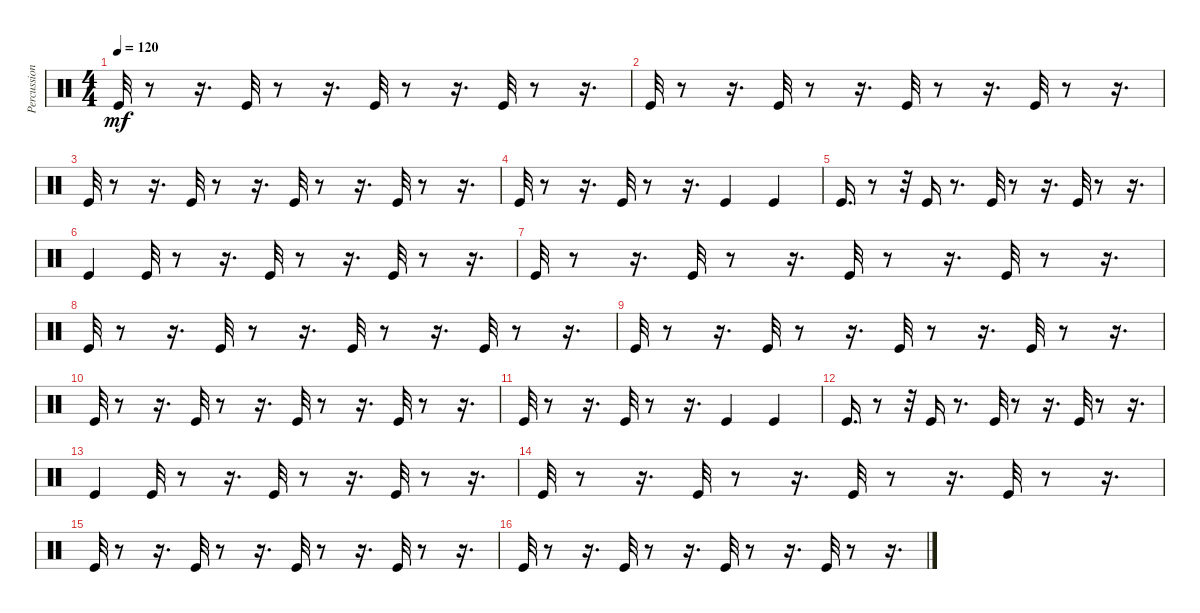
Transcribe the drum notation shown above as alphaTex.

\track ("Percussion" "Percussion") {instrument percussion}
\staff {score}
\articulation defaults
\ts (4 4)
\tempo 120
\clef neutral
\ks c "Kick (hit)".32{dy mf}
r.8 r.16{d} "Kick (hit)".32 r.8 r.16{d} "Kick (hit)".32 r.8 r.16{d} "Kick (hit)".32 r.8 r.16{d} |
"Kick (hit)".32 r.8 r.16{d} "Kick (hit)".32 r.8 r.16{d} "Kick (hit)".32 r.8 r.16{d} "Kick (hit)".32 r.8 r.16{d} |
"Kick (hit)".32 r.8 r.16{d} "Kick (hit)".32 r.8 r.16{d} "Kick (hit)".32 r.8 r.16{d} "Kick (hit)".32 r.8 r.16{d} |
"Kick (hit)".32 r.8 r.16{d} "Kick (hit)".32 r.8 r.16{d} "Kick (hit)".4 "Kick (hit)".4 |
"Kick (hit)".16{d} r.8 r.32 "Kick (hit)".16 r.8{d} "Kick (hit)".32 r.8 r.16{d} "Kick (hit)".32 r.8 r.16{d} |
"Kick (hit)".4 "Kick (hit)".32 r.8 r.16{d} "Kick (hit)".32 r.8 r.16{d} "Kick (hit)".32 r.8 r.16{d} |
"Kick (hit)".32 r.8 r.16{d} "Kick (hit)".32 r.8 r.16{d} "Kick (hit)".32 r.8 r.16{d} "Kick (hit)".32 r.8 r.16{d} |
"Kick (hit)".32 r.8 r.16{d} "Kick (hit)".32 r.8 r.16{d} "Kick (hit)".32 r.8 r.16{d} "Kick (hit)".32 r.8 r.16{d} |
"Kick (hit)".32 r.8 r.16{d} "Kick (hit)".32 r.8 r.16{d} "Kick (hit)".32 r.8 r.16{d} "Kick (hit)".32 r.8 r.16{d} |
"Kick (hit)".32 r.8 r.16{d} "Kick (hit)".32 r.8 r.16{d} "Kick (hit)".32 r.8 r.16{d} "Kick (hit)".32 r.8 r.16{d} |
"Kick (hit)".32 r.8 r.16{d} "Kick (hit)".32 r.8 r.16{d} "Kick (hit)".4 "Kick (hit)".4 |
"Kick (hit)".16{d} r.8 r.32 "Kick (hit)".16 r.8{d} "Kick (hit)".32 r.8 r.16{d} "Kick (hit)".32 r.8 r.16{d} |
"Kick (hit)".4 "Kick (hit)".32 r.8 r.16{d} "Kick (hit)".32 r.8 r.16{d} "Kick (hit)".32 r.8 r.16{d} |
"Kick (hit)".32 r.8 r.16{d} "Kick (hit)".32 r.8 r.16{d} "Kick (hit)".32 r.8 r.16{d} "Kick (hit)".32 r.8 r.16{d} |
"Kick (hit)".32 r.8 r.16{d} "Kick (hit)".32 r.8 r.16{d} "Kick (hit)".32 r.8 r.16{d} "Kick (hit)".32 r.8 r.16{d} |
"Kick (hit)".32 r.8 r.16{d} "Kick (hit)".32 r.8 r.16{d} "Kick (hit)".32 r.8 r.16{d} "Kick (hit)".32 r.8 r.16{d}
